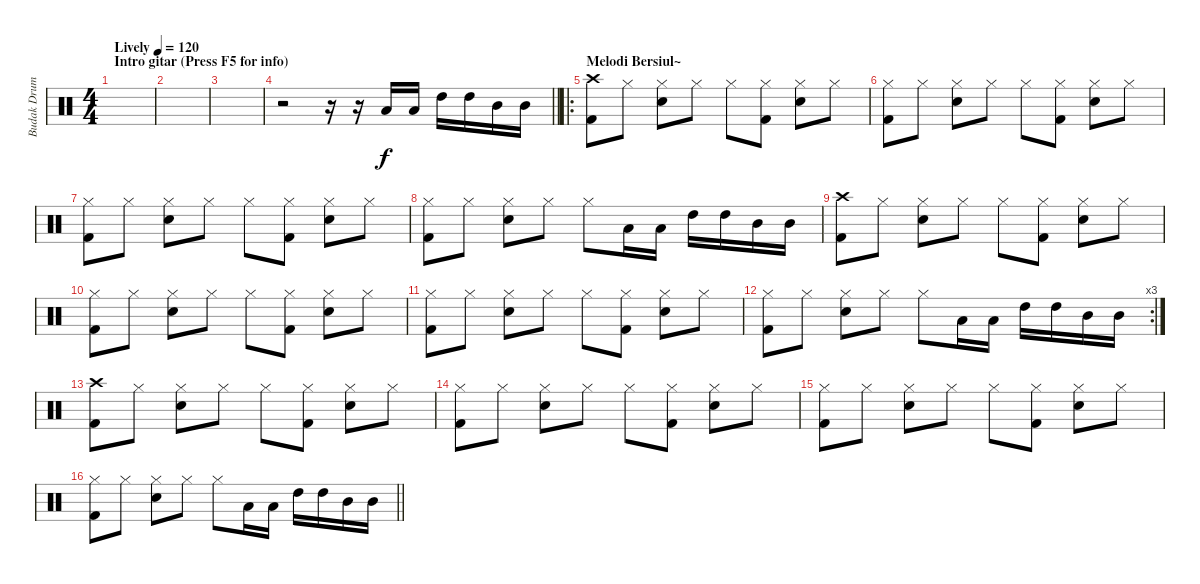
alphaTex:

\track ("Budak Drum" "Budak Drum") {instrument percussion}
\staff {score}
\articulation defaults
\ts (4 4)
\section ("" "Intro gitar (Press F5 for info)")
\tempo (120 "Lively")
\clef neutral
\ks c
|
|
|
\barLineRight lightlight
r.2 r.16 r.16 "Low Tom (hit)".16 "Low Tom (hit)".16 "High Tom (hit)".16 "High Tom (hit)".16 "Mid Tom (hit)".16 "Mid Tom (hit)".16 |
\ro
\section ("" "Melodi Bersiul~")
("Crash high (hit)" "Kick (hit) 2").8 "Hi-Hat (closed)".8 ("Hi-Hat (closed)" "Snare (hit) 2").8 "Hi-Hat (closed)".8 "Hi-Hat (closed)".8 ("Hi-Hat (closed)" "Kick (hit) 2").8 ("Hi-Hat (closed)" "Snare (hit) 2").8 "Hi-Hat (closed)".8 |
("Hi-Hat (closed)" "Kick (hit) 2").8 "Hi-Hat (closed)".8 ("Hi-Hat (closed)" "Snare (hit) 2").8 "Hi-Hat (closed)".8 "Hi-Hat (closed)".8 ("Hi-Hat (closed)" "Kick (hit) 2").8 ("Hi-Hat (closed)" "Snare (hit) 2").8 "Hi-Hat (closed)".8 |
("Hi-Hat (closed)" "Kick (hit) 2").8 "Hi-Hat (closed)".8 ("Hi-Hat (closed)" "Snare (hit) 2").8 "Hi-Hat (closed)".8 "Hi-Hat (closed)".8 ("Hi-Hat (closed)" "Kick (hit) 2").8 ("Hi-Hat (closed)" "Snare (hit) 2").8 "Hi-Hat (closed)".8 |
("Hi-Hat (closed)" "Kick (hit) 2").8 "Hi-Hat (closed)".8 ("Hi-Hat (closed)" "Snare (hit) 2").8 "Hi-Hat (closed)".8 "Hi-Hat (closed)".8 "Low Tom (hit)".16 "Low Tom (hit)".16 "High Tom (hit)".16 "High Tom (hit)".16 "Mid Tom (hit)".16 "Mid Tom (hit)".16 |
("Crash high (hit)" "Kick (hit) 2").8 "Hi-Hat (closed)".8 ("Hi-Hat (closed)" "Snare (hit) 2").8 "Hi-Hat (closed)".8 "Hi-Hat (closed)".8 ("Hi-Hat (closed)" "Kick (hit) 2").8 ("Hi-Hat (closed)" "Snare (hit) 2").8 "Hi-Hat (closed)".8 |
("Hi-Hat (closed)" "Kick (hit) 2").8 "Hi-Hat (closed)".8 ("Hi-Hat (closed)" "Snare (hit) 2").8 "Hi-Hat (closed)".8 "Hi-Hat (closed)".8 ("Hi-Hat (closed)" "Kick (hit) 2").8 ("Hi-Hat (closed)" "Snare (hit) 2").8 "Hi-Hat (closed)".8 |
("Hi-Hat (closed)" "Kick (hit) 2").8 "Hi-Hat (closed)".8 ("Hi-Hat (closed)" "Snare (hit) 2").8 "Hi-Hat (closed)".8 "Hi-Hat (closed)".8 ("Hi-Hat (closed)" "Kick (hit) 2").8 ("Hi-Hat (closed)" "Snare (hit) 2").8 "Hi-Hat (closed)".8 |
\rc 3
("Hi-Hat (closed)" "Kick (hit) 2").8 "Hi-Hat (closed)".8 ("Hi-Hat (closed)" "Snare (hit) 2").8 "Hi-Hat (closed)".8 "Hi-Hat (closed)".8 "Low Tom (hit)".16 "Low Tom (hit)".16 "High Tom (hit)".16 "High Tom (hit)".16 "Mid Tom (hit)".16 "Mid Tom (hit)".16 |
("Crash high (hit)" "Kick (hit) 2").8 "Hi-Hat (closed)".8 ("Hi-Hat (closed)" "Snare (hit) 2").8 "Hi-Hat (closed)".8 "Hi-Hat (closed)".8 ("Hi-Hat (closed)" "Kick (hit) 2").8 ("Hi-Hat (closed)" "Snare (hit) 2").8 "Hi-Hat (closed)".8 |
("Hi-Hat (closed)" "Kick (hit) 2").8 "Hi-Hat (closed)".8 ("Hi-Hat (closed)" "Snare (hit) 2").8 "Hi-Hat (closed)".8 "Hi-Hat (closed)".8 ("Hi-Hat (closed)" "Kick (hit) 2").8 ("Hi-Hat (closed)" "Snare (hit) 2").8 "Hi-Hat (closed)".8 |
("Hi-Hat (closed)" "Kick (hit) 2").8 "Hi-Hat (closed)".8 ("Hi-Hat (closed)" "Snare (hit) 2").8 "Hi-Hat (closed)".8 "Hi-Hat (closed)".8 ("Hi-Hat (closed)" "Kick (hit) 2").8 ("Hi-Hat (closed)" "Snare (hit) 2").8 "Hi-Hat (closed)".8 |
\barLineRight lightlight
("Hi-Hat (closed)" "Kick (hit) 2").8 "Hi-Hat (closed)".8 ("Hi-Hat (closed)" "Snare (hit) 2").8 "Hi-Hat (closed)".8 "Hi-Hat (closed)".8 "Low Tom (hit)".16 "Low Tom (hit)".16 "High Tom (hit)".16 "High Tom (hit)".16 "Mid Tom (hit)".16 "Mid Tom (hit)".16
